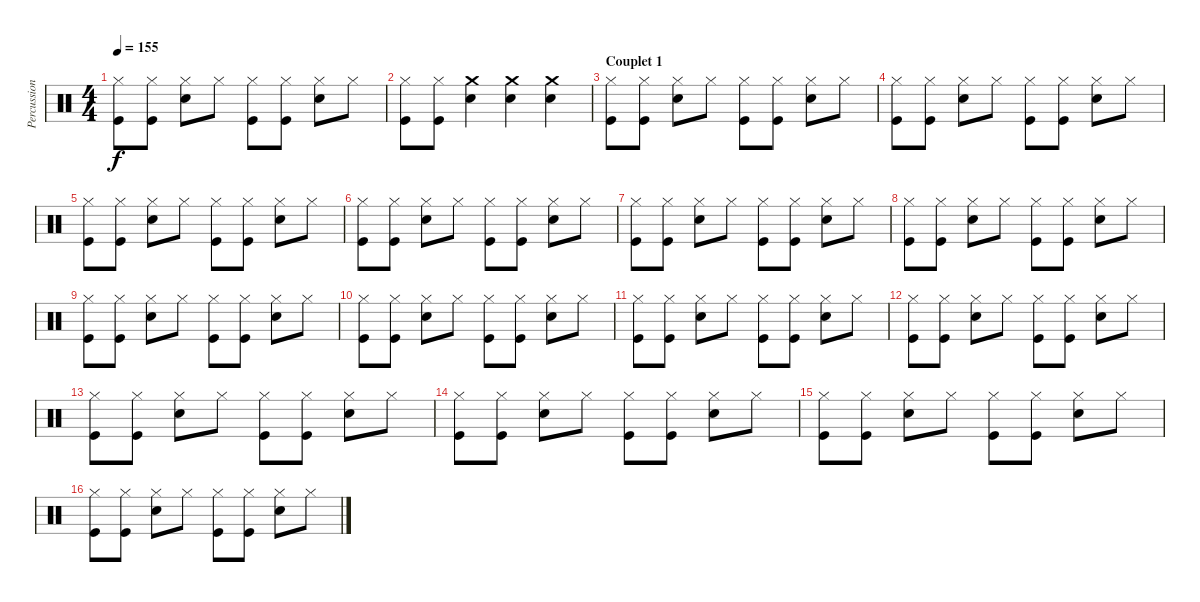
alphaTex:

\track ("Percussions" "Percussion") {instrument percussion}
\staff {score}
\articulation defaults
\ts (4 4)
\tempo 155
\clef neutral
\ks c
("Hi-Hat (closed)" "Kick (hit)").8{dy f} ("Hi-Hat (closed)" "Kick (hit)").8 ("Hi-Hat (closed)" "Snare (hit) 2").8 "Hi-Hat (closed)".8 ("Hi-Hat (closed)" "Kick (hit)").8 ("Hi-Hat (closed)" "Kick (hit)").8 ("Hi-Hat (closed)" "Snare (hit) 2").8 "Hi-Hat (closed)".8 |
("Hi-Hat (closed)" "Kick (hit)").8 ("Hi-Hat (closed)" "Kick (hit)").8 ("Crash medium (hit)" "Electric Snare (hit)").4 ("Crash medium (hit)" "Electric Snare (hit)").4 ("Crash medium (hit)" "Electric Snare (hit)").4 |
\section ("" "Couplet 1")
("Hi-Hat (closed)" "Kick (hit)").8 ("Hi-Hat (closed)" "Kick (hit)").8 ("Hi-Hat (closed)" "Snare (hit) 2").8 "Hi-Hat (closed)".8 ("Hi-Hat (closed)" "Kick (hit)").8 ("Hi-Hat (closed)" "Kick (hit)").8 ("Hi-Hat (closed)" "Snare (hit) 2").8 "Hi-Hat (closed)".8 |
("Hi-Hat (closed)" "Kick (hit)").8 ("Hi-Hat (closed)" "Kick (hit)").8 ("Hi-Hat (closed)" "Snare (hit) 2").8 "Hi-Hat (closed)".8 ("Hi-Hat (closed)" "Kick (hit)").8 ("Hi-Hat (closed)" "Kick (hit)").8 ("Hi-Hat (closed)" "Snare (hit) 2").8 "Hi-Hat (closed)".8 |
("Hi-Hat (closed)" "Kick (hit)").8 ("Hi-Hat (closed)" "Kick (hit)").8 ("Hi-Hat (closed)" "Snare (hit) 2").8 "Hi-Hat (closed)".8 ("Hi-Hat (closed)" "Kick (hit)").8 ("Hi-Hat (closed)" "Kick (hit)").8 ("Hi-Hat (closed)" "Snare (hit) 2").8 "Hi-Hat (closed)".8 |
("Hi-Hat (closed)" "Kick (hit)").8 ("Hi-Hat (closed)" "Kick (hit)").8 ("Hi-Hat (closed)" "Snare (hit) 2").8 "Hi-Hat (closed)".8 ("Hi-Hat (closed)" "Kick (hit)").8 ("Hi-Hat (closed)" "Kick (hit)").8 ("Hi-Hat (closed)" "Snare (hit) 2").8 "Hi-Hat (closed)".8 |
("Hi-Hat (closed)" "Kick (hit)").8 ("Hi-Hat (closed)" "Kick (hit)").8 ("Hi-Hat (closed)" "Snare (hit) 2").8 "Hi-Hat (closed)".8 ("Hi-Hat (closed)" "Kick (hit)").8 ("Hi-Hat (closed)" "Kick (hit)").8 ("Hi-Hat (closed)" "Snare (hit) 2").8 "Hi-Hat (closed)".8 |
("Hi-Hat (closed)" "Kick (hit)").8 ("Hi-Hat (closed)" "Kick (hit)").8 ("Hi-Hat (closed)" "Snare (hit) 2").8 "Hi-Hat (closed)".8 ("Hi-Hat (closed)" "Kick (hit)").8 ("Hi-Hat (closed)" "Kick (hit)").8 ("Hi-Hat (closed)" "Snare (hit) 2").8 "Hi-Hat (closed)".8 |
("Hi-Hat (closed)" "Kick (hit)").8 ("Hi-Hat (closed)" "Kick (hit)").8 ("Hi-Hat (closed)" "Snare (hit) 2").8 "Hi-Hat (closed)".8 ("Hi-Hat (closed)" "Kick (hit)").8 ("Hi-Hat (closed)" "Kick (hit)").8 ("Hi-Hat (closed)" "Snare (hit) 2").8 "Hi-Hat (closed)".8 |
("Hi-Hat (closed)" "Kick (hit)").8 ("Hi-Hat (closed)" "Kick (hit)").8 ("Hi-Hat (closed)" "Snare (hit) 2").8 "Hi-Hat (closed)".8 ("Hi-Hat (closed)" "Kick (hit)").8 ("Hi-Hat (closed)" "Kick (hit)").8 ("Hi-Hat (closed)" "Snare (hit) 2").8 "Hi-Hat (closed)".8 |
("Hi-Hat (closed)" "Kick (hit)").8 ("Hi-Hat (closed)" "Kick (hit)").8 ("Hi-Hat (closed)" "Snare (hit) 2").8 "Hi-Hat (closed)".8 ("Hi-Hat (closed)" "Kick (hit)").8 ("Hi-Hat (closed)" "Kick (hit)").8 ("Hi-Hat (closed)" "Snare (hit) 2").8 "Hi-Hat (closed)".8 |
("Hi-Hat (closed)" "Kick (hit)").8 ("Hi-Hat (closed)" "Kick (hit)").8 ("Hi-Hat (closed)" "Snare (hit) 2").8 "Hi-Hat (closed)".8 ("Hi-Hat (closed)" "Kick (hit)").8 ("Hi-Hat (closed)" "Kick (hit)").8 ("Hi-Hat (closed)" "Snare (hit) 2").8 "Hi-Hat (closed)".8 |
("Hi-Hat (closed)" "Kick (hit)").8 ("Hi-Hat (closed)" "Kick (hit)").8 ("Hi-Hat (closed)" "Snare (hit) 2").8 "Hi-Hat (closed)".8 ("Hi-Hat (closed)" "Kick (hit)").8 ("Hi-Hat (closed)" "Kick (hit)").8 ("Hi-Hat (closed)" "Snare (hit) 2").8 "Hi-Hat (closed)".8 |
("Hi-Hat (closed)" "Kick (hit)").8 ("Hi-Hat (closed)" "Kick (hit)").8 ("Hi-Hat (closed)" "Snare (hit) 2").8 "Hi-Hat (closed)".8 ("Hi-Hat (closed)" "Kick (hit)").8 ("Hi-Hat (closed)" "Kick (hit)").8 ("Hi-Hat (closed)" "Snare (hit) 2").8 "Hi-Hat (closed)".8 |
("Hi-Hat (closed)" "Kick (hit)").8 ("Hi-Hat (closed)" "Kick (hit)").8 ("Hi-Hat (closed)" "Snare (hit) 2").8 "Hi-Hat (closed)".8 ("Hi-Hat (closed)" "Kick (hit)").8 ("Hi-Hat (closed)" "Kick (hit)").8 ("Hi-Hat (closed)" "Snare (hit) 2").8 "Hi-Hat (closed)".8 |
("Hi-Hat (closed)" "Kick (hit)").8 ("Hi-Hat (closed)" "Kick (hit)").8 ("Hi-Hat (closed)" "Snare (hit) 2").8 "Hi-Hat (closed)".8 ("Hi-Hat (closed)" "Kick (hit)").8 ("Hi-Hat (closed)" "Kick (hit)").8 ("Hi-Hat (closed)" "Snare (hit) 2").8 "Hi-Hat (closed)".8
